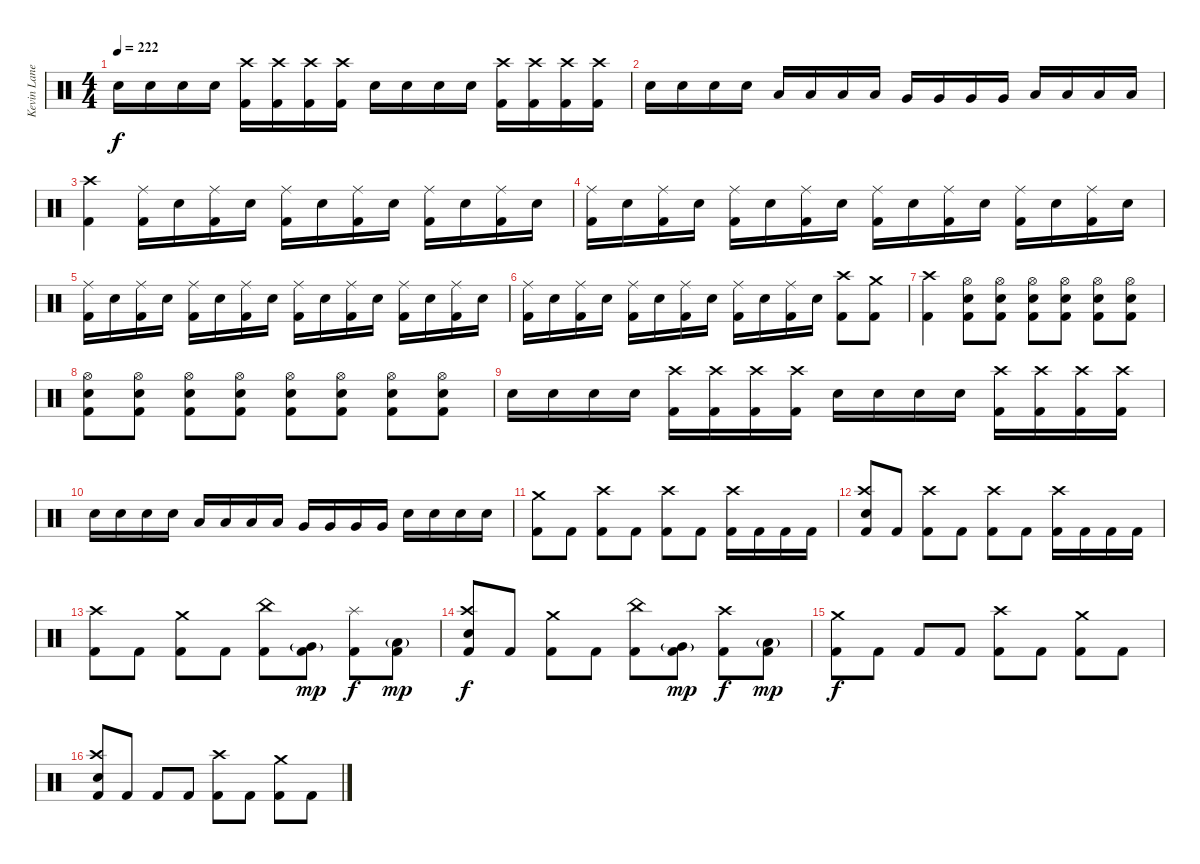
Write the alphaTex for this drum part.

\track ("Kevin Lane (Drums)" "Kevin Lane") {instrument percussion}
\staff {score}
\articulation defaults
\ts (4 4)
\tempo 222
\clef neutral
\ks c "Snare (hit) 2".16{dy f} "Snare (hit) 2".16 "Snare (hit) 2".16 "Snare (hit) 2".16
("Crash high (hit)" "Kick (hit) 2").16 ("Crash high (hit)" "Kick (hit) 2").16 ("Crash high (hit)" "Kick (hit) 2").16 ("Crash high (hit)" "Kick (hit) 2").16 "Snare (hit) 2".16 "Snare (hit) 2".16 "Snare (hit) 2".16 "Snare (hit) 2".16 ("Crash high (hit)" "Kick (hit) 2").16 ("Crash high (hit)" "Kick (hit) 2").16 ("Crash high (hit)" "Kick (hit) 2").16 ("Crash high (hit)" "Kick (hit) 2").16 |
"Snare (hit) 2".16 "Snare (hit) 2".16 "Snare (hit) 2".16 "Snare (hit) 2".16 "Low Tom (hit)".16 "Low Tom (hit)".16 "Low Tom (hit)".16 "Low Tom (hit)".16 "Very Low Tom (hit)".16 "Very Low Tom (hit)".16 "Very Low Tom (hit)".16 "Very Low Tom (hit)".16 "Low Floor Tom (hit)".16 "Low Floor Tom (hit)".16 "Low Floor Tom (hit)".16 "Low Floor Tom (hit)".16 |
("Crash high (hit)" "Kick (hit) 2").4 ("Ride (middle)" "Kick (hit) 2").16 "Snare (hit) 2".16 ("Ride (middle)" "Kick (hit) 2").16 "Snare (hit) 2".16 ("Ride (middle)" "Kick (hit) 2").16 "Snare (hit) 2".16 ("Ride (middle)" "Kick (hit) 2").16 "Snare (hit) 2".16 ("Ride (middle)" "Kick (hit) 2").16 "Snare (hit) 2".16 ("Ride (middle)" "Kick (hit) 2").16 "Snare (hit) 2".16 |
("Ride (middle)" "Kick (hit) 2").16 "Snare (hit) 2".16 ("Ride (middle)" "Kick (hit) 2").16 "Snare (hit) 2".16 ("Ride (middle)" "Kick (hit) 2").16 "Snare (hit) 2".16 ("Ride (middle)" "Kick (hit) 2").16 "Snare (hit) 2".16 ("Ride (middle)" "Kick (hit) 2").16 "Snare (hit) 2".16 ("Ride (middle)" "Kick (hit) 2").16 "Snare (hit) 2".16 ("Ride (middle)" "Kick (hit) 2").16 "Snare (hit) 2".16 ("Ride (middle)" "Kick (hit) 2").16 "Snare (hit) 2".16 |
("Ride (middle)" "Kick (hit) 2").16 "Snare (hit) 2".16 ("Ride (middle)" "Kick (hit) 2").16 "Snare (hit) 2".16 ("Ride (middle)" "Kick (hit) 2").16 "Snare (hit) 2".16 ("Ride (middle)" "Kick (hit) 2").16 "Snare (hit) 2".16 ("Ride (middle)" "Kick (hit) 2").16 "Snare (hit) 2".16 ("Ride (middle)" "Kick (hit) 2").16 "Snare (hit) 2".16 ("Ride (middle)" "Kick (hit) 2").16 "Snare (hit) 2".16 ("Ride (middle)" "Kick (hit) 2").16 "Snare (hit) 2".16 |
("Ride (middle)" "Kick (hit) 2").16 "Snare (hit) 2".16 ("Ride (middle)" "Kick (hit) 2").16 "Snare (hit) 2".16 ("Ride (middle)" "Kick (hit) 2").16 "Snare (hit) 2".16 ("Ride (middle)" "Kick (hit) 2").16 "Snare (hit) 2".16 ("Ride (middle)" "Kick (hit) 2").16 "Snare (hit) 2".16 ("Ride (middle)" "Kick (hit) 2").16 "Snare (hit) 2".16 ("Crash high (hit)" "Kick (hit) 2").8 ("Crash medium (hit)" "Kick (hit) 2").8 |
("Crash high (hit)" "Kick (hit) 2").4 ("Hi-Hat (open)" "Snare (hit) 2" "Kick (hit) 2").8 ("Hi-Hat (open)" "Snare (hit) 2" "Kick (hit) 2").8 ("Hi-Hat (open)" "Snare (hit) 2" "Kick (hit) 2").8 ("Hi-Hat (open)" "Snare (hit) 2" "Kick (hit) 2").8 ("Hi-Hat (open)" "Snare (hit) 2" "Kick (hit) 2").8 ("Hi-Hat (open)" "Snare (hit) 2" "Kick (hit) 2").8 |
("Hi-Hat (open)" "Snare (hit) 2" "Kick (hit) 2").8 ("Hi-Hat (open)" "Snare (hit) 2" "Kick (hit) 2").8 ("Hi-Hat (open)" "Snare (hit) 2" "Kick (hit) 2").8 ("Hi-Hat (open)" "Snare (hit) 2" "Kick (hit) 2").8 ("Hi-Hat (open)" "Snare (hit) 2" "Kick (hit) 2").8 ("Hi-Hat (open)" "Snare (hit) 2" "Kick (hit) 2").8 ("Hi-Hat (open)" "Snare (hit) 2" "Kick (hit) 2").8 ("Hi-Hat (open)" "Snare (hit) 2" "Kick (hit) 2").8 |
"Snare (hit) 2".16 "Snare (hit) 2".16 "Snare (hit) 2".16 "Snare (hit) 2".16 ("Crash high (hit)" "Kick (hit) 2").16 ("Crash high (hit)" "Kick (hit) 2").16 ("Crash high (hit)" "Kick (hit) 2").16 ("Crash high (hit)" "Kick (hit) 2").16 "Snare (hit) 2".16 "Snare (hit) 2".16 "Snare (hit) 2".16 "Snare (hit) 2".16 ("Crash high (hit)" "Kick (hit) 2").16 ("Crash high (hit)" "Kick (hit) 2").16 ("Crash high (hit)" "Kick (hit) 2").16 ("Crash high (hit)" "Kick (hit) 2").16 |
"Snare (hit) 2".16 "Snare (hit) 2".16 "Snare (hit) 2".16 "Snare (hit) 2".16 "Low Tom (hit)".16 "Low Tom (hit)".16 "Low Tom (hit)".16 "Low Tom (hit)".16 "Very Low Tom (hit)".16 "Very Low Tom (hit)".16 "Very Low Tom (hit)".16 "Very Low Tom (hit)".16 "Snare (hit) 2".16 "Snare (hit) 2".16 "Snare (hit) 2".16 "Snare (hit) 2".16 |
("Crash medium (hit)" "Kick (hit) 2").8 "Kick (hit) 2".8 ("Crash high (hit)" "Kick (hit) 2").8 "Kick (hit) 2".8 ("Crash high (hit)" "Kick (hit) 2").8 "Kick (hit) 2".8 ("Crash high (hit)" "Kick (hit) 2").16 "Kick (hit) 2".16 "Kick (hit) 2".16 "Kick (hit) 2".16 |
("Crash high (hit)" "Snare (hit) 2" "Kick (hit) 2").8 "Kick (hit) 2".8 ("Crash high (hit)" "Kick (hit) 2").8 "Kick (hit) 2".8 ("Crash high (hit)" "Kick (hit) 2").8 "Kick (hit) 2".8 ("Crash high (hit)" "Kick (hit) 2").16 "Kick (hit) 2".16 "Kick (hit) 2".16 "Kick (hit) 2".16 |
("Crash high (hit)" "Kick (hit) 2").8 "Kick (hit) 2".8 ("Crash medium (hit)" "Kick (hit) 2").8 "Kick (hit) 2".8 ("China (hit)" "Kick (hit) 2").8 ("Very Low Tom (hit)"{g} "Kick (hit) 2").8{dy mp} ("Splash (hit)" "Kick (hit) 2").8{dy f} ("Low Floor Tom (hit)"{g} "Kick (hit) 2").8{dy mp} |
("Snare (hit) 2" "Crash high (hit)" "Kick (hit) 2").8{dy f} "Kick (hit) 2".8 ("Crash medium (hit)" "Kick (hit) 2").8 "Kick (hit) 2".8 ("China (hit)" "Kick (hit) 2").8 ("Very Low Tom (hit)"{g} "Kick (hit) 2").8{dy mp} ("Crash high (hit)" "Kick (hit) 2").8{dy f} ("Low Floor Tom (hit)"{g} "Kick (hit) 2").8{dy mp} |
("Crash medium (hit)" "Kick (hit) 2").8{dy f} "Kick (hit) 2".8 "Kick (hit) 2".8 "Kick (hit) 2".8 ("Crash high (hit)" "Kick (hit) 2").8 "Kick (hit) 2".8 ("Crash medium (hit)" "Kick (hit) 2").8 "Kick (hit) 2".8 |
("Snare (hit) 2" "Crash high (hit)" "Kick (hit) 2").8 "Kick (hit) 2".8 "Kick (hit) 2".8 "Kick (hit) 2".8 ("Crash high (hit)" "Kick (hit) 2").8 "Kick (hit) 2".8 ("Crash medium (hit)" "Kick (hit) 2").8 "Kick (hit) 2".8
